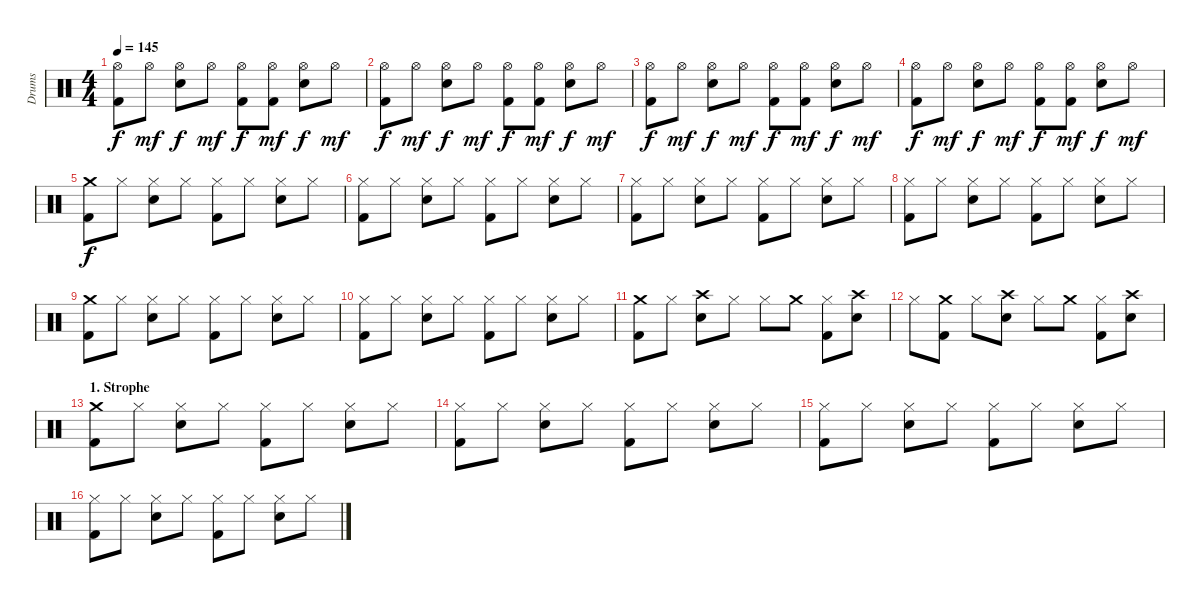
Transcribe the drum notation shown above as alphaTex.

\track ("Drums" "Drums") {instrument percussion}
\staff {score}
\articulation defaults
\ts (4 4)
\tempo 145
\clef neutral
\ks c
("Hi-Hat (open)" "Kick (hit) 2").8{dy f volume 7} "Hi-Hat (open)".8{dy mf} ("Hi-Hat (open)" "Snare (hit) 2").8{dy f} "Hi-Hat (open)".8{dy mf} ("Hi-Hat (open)" "Kick (hit) 2").8{dy f} ("Hi-Hat (open)" "Kick (hit) 2").8{dy mf} ("Hi-Hat (open)" "Snare (hit) 2").8{dy f} "Hi-Hat (open)".8{dy mf} |
("Hi-Hat (open)" "Kick (hit) 2").8{dy f} "Hi-Hat (open)".8{dy mf} ("Hi-Hat (open)" "Snare (hit) 2").8{dy f} "Hi-Hat (open)".8{dy mf} ("Hi-Hat (open)" "Kick (hit) 2").8{dy f} ("Hi-Hat (open)" "Kick (hit) 2").8{dy mf} ("Hi-Hat (open)" "Snare (hit) 2").8{dy f} "Hi-Hat (open)".8{dy mf} |
("Hi-Hat (open)" "Kick (hit) 2").8{dy f} "Hi-Hat (open)".8{dy mf} ("Hi-Hat (open)" "Snare (hit) 2").8{dy f} "Hi-Hat (open)".8{dy mf} ("Hi-Hat (open)" "Kick (hit) 2").8{dy f} ("Hi-Hat (open)" "Kick (hit) 2").8{dy mf} ("Hi-Hat (open)" "Snare (hit) 2").8{dy f} "Hi-Hat (open)".8{dy mf} |
("Hi-Hat (open)" "Kick (hit) 2").8{dy f} "Hi-Hat (open)".8{dy mf} ("Hi-Hat (open)" "Snare (hit) 2").8{dy f} "Hi-Hat (open)".8{dy mf} ("Hi-Hat (open)" "Kick (hit) 2").8{dy f} ("Hi-Hat (open)" "Kick (hit) 2").8{dy mf} ("Hi-Hat (open)" "Snare (hit) 2").8{dy f} "Hi-Hat (open)".8{dy mf} |
("Crash medium (hit)" "Kick (hit) 2").8{dy f volume 13} "Hi-Hat (closed)".8 ("Hi-Hat (closed)" "Snare (hit) 2").8 "Hi-Hat (closed)".8 ("Hi-Hat (closed)" "Kick (hit) 2").8 "Hi-Hat (closed)".8 ("Hi-Hat (closed)" "Snare (hit) 2").8 "Hi-Hat (closed)".8 |
("Hi-Hat (closed)" "Kick (hit) 2").8 "Hi-Hat (closed)".8 ("Hi-Hat (closed)" "Snare (hit) 2").8 "Hi-Hat (closed)".8 ("Hi-Hat (closed)" "Kick (hit) 2").8 "Hi-Hat (closed)".8 ("Hi-Hat (closed)" "Snare (hit) 2").8 "Hi-Hat (closed)".8 |
("Hi-Hat (closed)" "Kick (hit) 2").8 "Hi-Hat (closed)".8 ("Hi-Hat (closed)" "Snare (hit) 2").8 "Hi-Hat (closed)".8 ("Hi-Hat (closed)" "Kick (hit) 2").8 "Hi-Hat (closed)".8 ("Hi-Hat (closed)" "Snare (hit) 2").8 "Hi-Hat (closed)".8 |
("Hi-Hat (closed)" "Kick (hit) 2").8 "Hi-Hat (closed)".8 ("Hi-Hat (closed)" "Snare (hit) 2").8 "Hi-Hat (closed)".8 ("Hi-Hat (closed)" "Kick (hit) 2").8 "Hi-Hat (closed)".8 ("Hi-Hat (closed)" "Snare (hit) 2").8 "Hi-Hat (closed)".8 |
("Crash medium (hit)" "Kick (hit) 2").8 "Hi-Hat (closed)".8 ("Hi-Hat (closed)" "Snare (hit) 2").8 "Hi-Hat (closed)".8 ("Hi-Hat (closed)" "Kick (hit) 2").8 "Hi-Hat (closed)".8 ("Hi-Hat (closed)" "Snare (hit) 2").8 "Hi-Hat (closed)".8 |
("Hi-Hat (closed)" "Kick (hit) 2").8 "Hi-Hat (closed)".8 ("Hi-Hat (closed)" "Snare (hit) 2").8 "Hi-Hat (closed)".8 ("Hi-Hat (closed)" "Kick (hit) 2").8 "Hi-Hat (closed)".8 ("Hi-Hat (closed)" "Snare (hit) 2").8 "Hi-Hat (closed)".8 |
("Crash medium (hit)" "Kick (hit) 2").8 "Hi-Hat (closed)".8 ("Crash high (hit)" "Snare (hit) 2").8 "Hi-Hat (closed)".8 "Hi-Hat (closed)".8 "Crash medium (hit)".8 ("Hi-Hat (closed)" "Kick (hit) 2").8 ("Crash high (hit)" "Snare (hit) 2").8 |
"Hi-Hat (closed)".8 ("Crash medium (hit)" "Kick (hit) 2").8 "Hi-Hat (closed)".8 ("Crash high (hit)" "Snare (hit) 2").8 "Hi-Hat (closed)".8 "Crash medium (hit)".8 ("Hi-Hat (closed)" "Kick (hit) 2").8 ("Crash high (hit)" "Snare (hit) 2").8 |
\section ("" "1. Strophe")
("Crash medium (hit)" "Kick (hit) 2").8{volume 13} "Hi-Hat (closed)".8 ("Hi-Hat (closed)" "Snare (hit) 2").8 "Hi-Hat (closed)".8 ("Hi-Hat (closed)" "Kick (hit) 2").8 "Hi-Hat (closed)".8 ("Hi-Hat (closed)" "Snare (hit) 2").8 "Hi-Hat (closed)".8 |
("Hi-Hat (closed)" "Kick (hit) 2").8 "Hi-Hat (closed)".8 ("Hi-Hat (closed)" "Snare (hit) 2").8 "Hi-Hat (closed)".8 ("Hi-Hat (closed)" "Kick (hit) 2").8 "Hi-Hat (closed)".8 ("Hi-Hat (closed)" "Snare (hit) 2").8 "Hi-Hat (closed)".8 |
("Hi-Hat (closed)" "Kick (hit) 2").8 "Hi-Hat (closed)".8 ("Hi-Hat (closed)" "Snare (hit) 2").8 "Hi-Hat (closed)".8 ("Hi-Hat (closed)" "Kick (hit) 2").8 "Hi-Hat (closed)".8 ("Hi-Hat (closed)" "Snare (hit) 2").8 "Hi-Hat (closed)".8 |
("Hi-Hat (closed)" "Kick (hit) 2").8 "Hi-Hat (closed)".8 ("Hi-Hat (closed)" "Snare (hit) 2").8 "Hi-Hat (closed)".8 ("Hi-Hat (closed)" "Kick (hit) 2").8 "Hi-Hat (closed)".8 ("Hi-Hat (closed)" "Snare (hit) 2").8 "Hi-Hat (closed)".8
